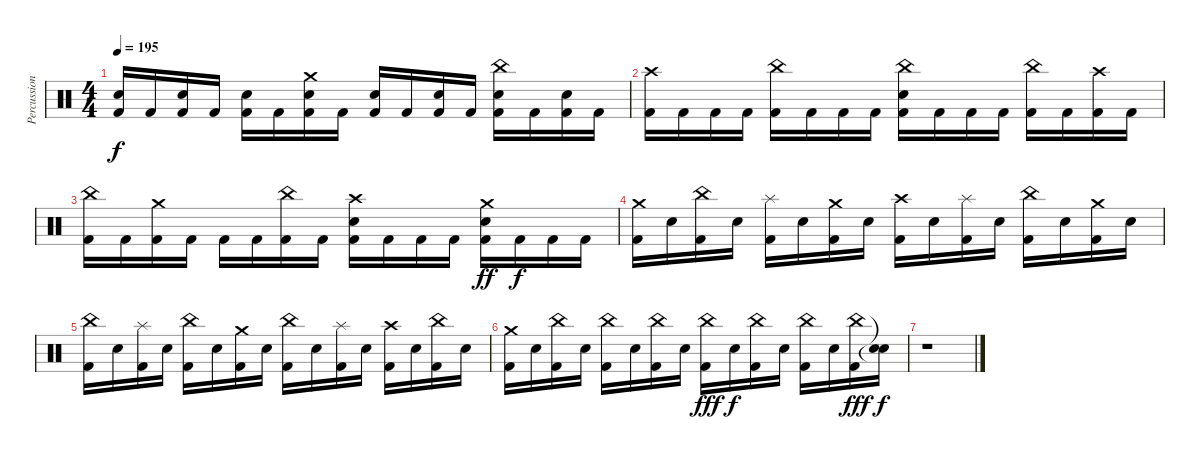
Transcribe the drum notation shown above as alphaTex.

\track ("Percussion" "Percussion") {instrument percussion}
\staff {score}
\articulation defaults
\ts (4 4)
\tempo 195
\clef neutral
\ks c
("Snare (hit) 2" "Kick (hit) 2").16{dy f} "Kick (hit) 2".16 ("Snare (hit) 2" "Kick (hit) 2").16 "Kick (hit) 2".16 ("Snare (hit) 2" "Kick (hit) 2").16 "Kick (hit) 2".16 ("Crash medium (hit)" "Snare (hit) 2" "Kick (hit) 2").16 "Kick (hit) 2".16 ("Snare (hit) 2" "Kick (hit) 2").16 "Kick (hit) 2".16 ("Snare (hit) 2" "Kick (hit) 2").16 "Kick (hit) 2".16 ("China (hit)" "Snare (hit) 2" "Kick (hit) 2").16 "Kick (hit) 2".16 ("Snare (hit) 2" "Kick (hit) 2").16 "Kick (hit) 2".16 |
("Crash high (hit)" "Kick (hit) 2").16 "Kick (hit) 2".16 "Kick (hit) 2".16 "Kick (hit) 2".16 ("China (hit)" "Kick (hit) 2").16 "Kick (hit) 2".16 "Kick (hit) 2".16 "Kick (hit) 2".16 ("China (hit)" "Snare (hit) 2" "Kick (hit) 2").16 "Kick (hit) 2".16 "Kick (hit) 2".16 "Kick (hit) 2".16 ("China (hit)" "Kick (hit) 2").16 "Kick (hit) 2".16 ("Crash high (hit)" "Kick (hit) 2").16 "Kick (hit) 2".16 |
("China (hit)" "Kick (hit) 2").16 "Kick (hit) 2".16 ("Crash medium (hit)" "Kick (hit) 2").16 "Kick (hit) 2".16 "Kick (hit) 2".16 "Kick (hit) 2".16 ("China (hit)" "Kick (hit) 2").16 "Kick (hit) 2".16 ("Crash high (hit)" "Snare (hit) 2" "Kick (hit) 2").16 "Kick (hit) 2".16 "Kick (hit) 2".16 "Kick (hit) 2".16 ("Crash medium (hit)" "Snare (hit) 2" "Kick (hit) 2").16{dy ff} "Kick (hit) 2".16{dy f} "Kick (hit) 2".16 "Kick (hit) 2".16 |
("Crash medium (hit)" "Kick (hit) 2").16 "Snare (hit) 2".16 ("China (hit)" "Kick (hit) 2").16 "Snare (hit) 2".16 ("Splash (hit)" "Kick (hit) 2").16 "Snare (hit) 2".16 ("Crash medium (hit)" "Kick (hit) 2").16 "Snare (hit) 2".16 ("Crash high (hit)" "Kick (hit) 2").16 "Snare (hit) 2".16 ("Splash (hit)" "Kick (hit) 2").16 "Snare (hit) 2".16 ("China (hit)" "Kick (hit) 2").16 "Snare (hit) 2".16 ("Crash medium (hit)" "Kick (hit) 2").16 "Snare (hit) 2".16 |
("China (hit)" "Kick (hit) 2").16 "Snare (hit) 2".16 ("Splash (hit)" "Kick (hit) 2").16 "Snare (hit) 2".16 ("China (hit)" "Kick (hit) 2").16 "Snare (hit) 2".16 ("Crash medium (hit)" "Kick (hit) 2").16 "Snare (hit) 2".16 ("China (hit)" "Kick (hit) 2").16 "Snare (hit) 2".16 ("Splash (hit)" "Kick (hit) 2").16 "Snare (hit) 2".16 ("Crash high (hit)" "Kick (hit) 2").16 "Snare (hit) 2".16 ("China (hit)" "Kick (hit) 2").16 "Snare (hit) 2".16 |
("Crash medium (hit)" "Kick (hit) 2").16 "Snare (hit) 2".16 ("China (hit)" "Kick (hit) 2").16 "Snare (hit) 2".16 ("China (hit)" "Kick (hit) 2").16 "Snare (hit) 2".16 ("China (hit)" "Kick (hit) 2").16 "Snare (hit) 2".16 ("China (hit)" "Kick (hit) 2").16{dy fff} "Snare (hit) 2".16{dy f} ("China (hit)" "Kick (hit) 2").16 "Snare (hit) 2".16 ("China (hit)" "Kick (hit) 2").16 "Snare (hit) 2".16 ("China (hit)" "Kick (hit) 2").16{dy fff} ("Snare (hit)"{t} "Snare (hit)"{t}).16{dy f} |
r.1
